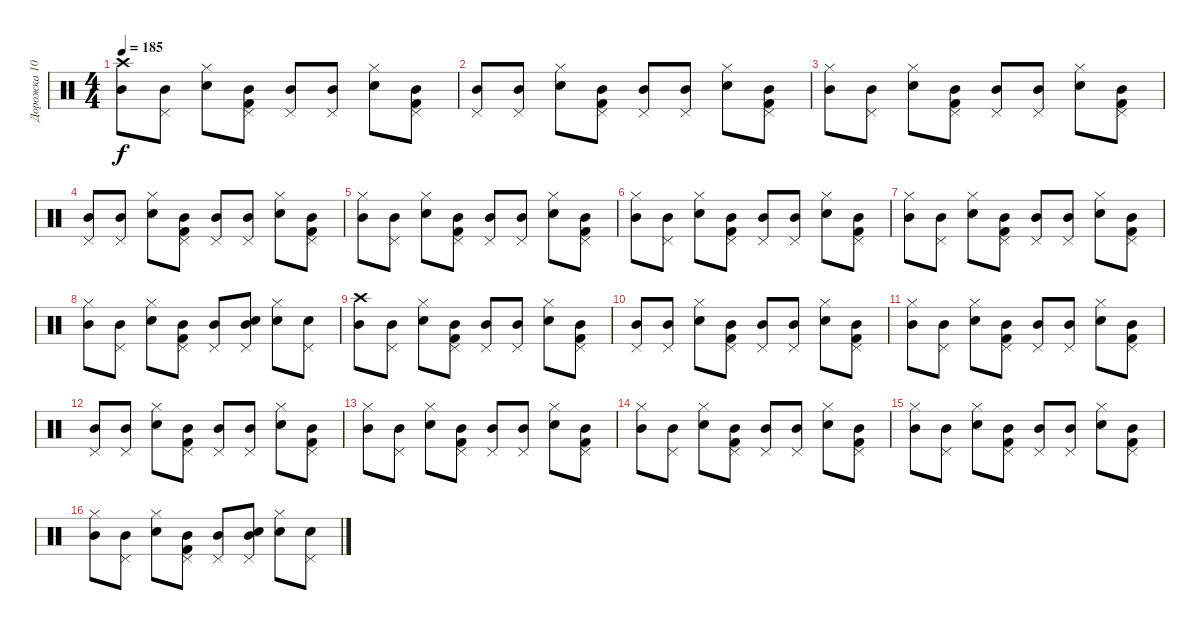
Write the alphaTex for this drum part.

\track ("Дорожка 10" "Дорожка 10") {instrument percussion}
\staff {score}
\articulation defaults
\ts (4 4)
\tempo 185
\clef neutral
\ks c
("Mid Tom (hit)" "Crash high (hit)").8{dy f} ("Mid Tom (hit)" "Pedal Hi-Hat (hit)").8 ("Snare (hit) 2" "Hi-Hat (closed)").8 ("Kick (hit) 2" "Mid Tom (hit)" "Pedal Hi-Hat (hit)").8 ("Mid Tom (hit)" "Pedal Hi-Hat (hit)").8 ("Mid Tom (hit)" "Pedal Hi-Hat (hit)").8 ("Snare (hit) 2" "Hi-Hat (closed)").8 ("Kick (hit) 2" "Mid Tom (hit)" "Pedal Hi-Hat (hit)").8 |
("Mid Tom (hit)" "Pedal Hi-Hat (hit)").8 ("Mid Tom (hit)" "Pedal Hi-Hat (hit)").8 ("Snare (hit) 2" "Hi-Hat (closed)").8 ("Kick (hit) 2" "Mid Tom (hit)" "Pedal Hi-Hat (hit)").8 ("Mid Tom (hit)" "Pedal Hi-Hat (hit)").8 ("Mid Tom (hit)" "Pedal Hi-Hat (hit)").8 ("Snare (hit) 2" "Hi-Hat (closed)").8 ("Kick (hit) 2" "Mid Tom (hit)" "Pedal Hi-Hat (hit)").8 |
("Mid Tom (hit)" "Hi-Hat (closed)").8 ("Mid Tom (hit)" "Pedal Hi-Hat (hit)").8 ("Snare (hit) 2" "Hi-Hat (closed)").8 ("Kick (hit) 2" "Mid Tom (hit)" "Pedal Hi-Hat (hit)").8 ("Mid Tom (hit)" "Pedal Hi-Hat (hit)").8 ("Mid Tom (hit)" "Pedal Hi-Hat (hit)").8 ("Snare (hit) 2" "Hi-Hat (closed)").8 ("Kick (hit) 2" "Mid Tom (hit)" "Pedal Hi-Hat (hit)").8 |
("Mid Tom (hit)" "Pedal Hi-Hat (hit)").8 ("Mid Tom (hit)" "Pedal Hi-Hat (hit)").8 ("Snare (hit) 2" "Hi-Hat (closed)").8 ("Kick (hit) 2" "Mid Tom (hit)" "Pedal Hi-Hat (hit)").8 ("Mid Tom (hit)" "Pedal Hi-Hat (hit)").8 ("Mid Tom (hit)" "Pedal Hi-Hat (hit)").8 ("Snare (hit) 2" "Hi-Hat (closed)").8 ("Kick (hit) 2" "Mid Tom (hit)" "Pedal Hi-Hat (hit)").8 |
("Mid Tom (hit)" "Hi-Hat (closed)").8 ("Mid Tom (hit)" "Pedal Hi-Hat (hit)").8 ("Snare (hit) 2" "Hi-Hat (closed)").8 ("Kick (hit) 2" "Mid Tom (hit)" "Pedal Hi-Hat (hit)").8 ("Mid Tom (hit)" "Pedal Hi-Hat (hit)").8 ("Mid Tom (hit)" "Pedal Hi-Hat (hit)").8 ("Snare (hit) 2" "Hi-Hat (closed)").8 ("Kick (hit) 2" "Mid Tom (hit)" "Pedal Hi-Hat (hit)").8 |
("Mid Tom (hit)" "Hi-Hat (closed)").8 ("Mid Tom (hit)" "Pedal Hi-Hat (hit)").8 ("Snare (hit) 2" "Hi-Hat (closed)").8 ("Kick (hit) 2" "Mid Tom (hit)" "Pedal Hi-Hat (hit)").8 ("Mid Tom (hit)" "Pedal Hi-Hat (hit)").8 ("Mid Tom (hit)" "Pedal Hi-Hat (hit)").8 ("Snare (hit) 2" "Hi-Hat (closed)").8 ("Kick (hit) 2" "Mid Tom (hit)" "Pedal Hi-Hat (hit)").8 |
("Mid Tom (hit)" "Hi-Hat (closed)").8 ("Mid Tom (hit)" "Pedal Hi-Hat (hit)").8 ("Snare (hit) 2" "Hi-Hat (closed)").8 ("Kick (hit) 2" "Mid Tom (hit)" "Pedal Hi-Hat (hit)").8 ("Mid Tom (hit)" "Pedal Hi-Hat (hit)").8 ("Mid Tom (hit)" "Pedal Hi-Hat (hit)").8 ("Snare (hit) 2" "Hi-Hat (closed)").8 ("Kick (hit) 2" "Mid Tom (hit)" "Pedal Hi-Hat (hit)").8 |
("Mid Tom (hit)" "Hi-Hat (closed)").8 ("Mid Tom (hit)" "Pedal Hi-Hat (hit)").8 ("Snare (hit) 2" "Hi-Hat (closed)").8 ("Kick (hit) 2" "Mid Tom (hit)" "Pedal Hi-Hat (hit)").8 ("Mid Tom (hit)" "Pedal Hi-Hat (hit)").8 ("Snare (hit) 2" "Mid Tom (hit)" "Pedal Hi-Hat (hit)").8 ("Snare (hit) 2" "Hi-Hat (closed)").8 ("Snare (hit) 2" "Pedal Hi-Hat (hit)").8 |
("Mid Tom (hit)" "Crash high (hit)").8 ("Mid Tom (hit)" "Pedal Hi-Hat (hit)").8 ("Snare (hit) 2" "Hi-Hat (closed)").8 ("Kick (hit) 2" "Mid Tom (hit)" "Pedal Hi-Hat (hit)").8 ("Mid Tom (hit)" "Pedal Hi-Hat (hit)").8 ("Mid Tom (hit)" "Pedal Hi-Hat (hit)").8 ("Snare (hit) 2" "Hi-Hat (closed)").8 ("Kick (hit) 2" "Mid Tom (hit)" "Pedal Hi-Hat (hit)").8 |
("Mid Tom (hit)" "Pedal Hi-Hat (hit)").8 ("Mid Tom (hit)" "Pedal Hi-Hat (hit)").8 ("Snare (hit) 2" "Hi-Hat (closed)").8 ("Kick (hit) 2" "Mid Tom (hit)" "Pedal Hi-Hat (hit)").8 ("Mid Tom (hit)" "Pedal Hi-Hat (hit)").8 ("Mid Tom (hit)" "Pedal Hi-Hat (hit)").8 ("Snare (hit) 2" "Hi-Hat (closed)").8 ("Kick (hit) 2" "Mid Tom (hit)" "Pedal Hi-Hat (hit)").8 |
("Mid Tom (hit)" "Hi-Hat (closed)").8 ("Mid Tom (hit)" "Pedal Hi-Hat (hit)").8 ("Snare (hit) 2" "Hi-Hat (closed)").8 ("Kick (hit) 2" "Mid Tom (hit)" "Pedal Hi-Hat (hit)").8 ("Mid Tom (hit)" "Pedal Hi-Hat (hit)").8 ("Mid Tom (hit)" "Pedal Hi-Hat (hit)").8 ("Snare (hit) 2" "Hi-Hat (closed)").8 ("Kick (hit) 2" "Mid Tom (hit)" "Pedal Hi-Hat (hit)").8 |
("Mid Tom (hit)" "Pedal Hi-Hat (hit)").8 ("Mid Tom (hit)" "Pedal Hi-Hat (hit)").8 ("Snare (hit) 2" "Hi-Hat (closed)").8 ("Kick (hit) 2" "Mid Tom (hit)" "Pedal Hi-Hat (hit)").8 ("Mid Tom (hit)" "Pedal Hi-Hat (hit)").8 ("Mid Tom (hit)" "Pedal Hi-Hat (hit)").8 ("Snare (hit) 2" "Hi-Hat (closed)").8 ("Kick (hit) 2" "Mid Tom (hit)" "Pedal Hi-Hat (hit)").8 |
("Mid Tom (hit)" "Hi-Hat (closed)").8 ("Mid Tom (hit)" "Pedal Hi-Hat (hit)").8 ("Snare (hit) 2" "Hi-Hat (closed)").8 ("Kick (hit) 2" "Mid Tom (hit)" "Pedal Hi-Hat (hit)").8 ("Mid Tom (hit)" "Pedal Hi-Hat (hit)").8 ("Mid Tom (hit)" "Pedal Hi-Hat (hit)").8 ("Snare (hit) 2" "Hi-Hat (closed)").8 ("Kick (hit) 2" "Mid Tom (hit)" "Pedal Hi-Hat (hit)").8 |
("Mid Tom (hit)" "Hi-Hat (closed)").8 ("Mid Tom (hit)" "Pedal Hi-Hat (hit)").8 ("Snare (hit) 2" "Hi-Hat (closed)").8 ("Kick (hit) 2" "Mid Tom (hit)" "Pedal Hi-Hat (hit)").8 ("Mid Tom (hit)" "Pedal Hi-Hat (hit)").8 ("Mid Tom (hit)" "Pedal Hi-Hat (hit)").8 ("Snare (hit) 2" "Hi-Hat (closed)").8 ("Kick (hit) 2" "Mid Tom (hit)" "Pedal Hi-Hat (hit)").8 |
("Mid Tom (hit)" "Hi-Hat (closed)").8 ("Mid Tom (hit)" "Pedal Hi-Hat (hit)").8 ("Snare (hit) 2" "Hi-Hat (closed)").8 ("Kick (hit) 2" "Mid Tom (hit)" "Pedal Hi-Hat (hit)").8 ("Mid Tom (hit)" "Pedal Hi-Hat (hit)").8 ("Mid Tom (hit)" "Pedal Hi-Hat (hit)").8 ("Snare (hit) 2" "Hi-Hat (closed)").8 ("Kick (hit) 2" "Mid Tom (hit)" "Pedal Hi-Hat (hit)").8 |
("Mid Tom (hit)" "Hi-Hat (closed)").8 ("Mid Tom (hit)" "Pedal Hi-Hat (hit)").8 ("Snare (hit) 2" "Hi-Hat (closed)").8 ("Kick (hit) 2" "Mid Tom (hit)" "Pedal Hi-Hat (hit)").8 ("Mid Tom (hit)" "Pedal Hi-Hat (hit)").8 ("Snare (hit) 2" "Mid Tom (hit)" "Pedal Hi-Hat (hit)").8 ("Snare (hit) 2" "Hi-Hat (closed)").8 ("Snare (hit) 2" "Pedal Hi-Hat (hit)").8
